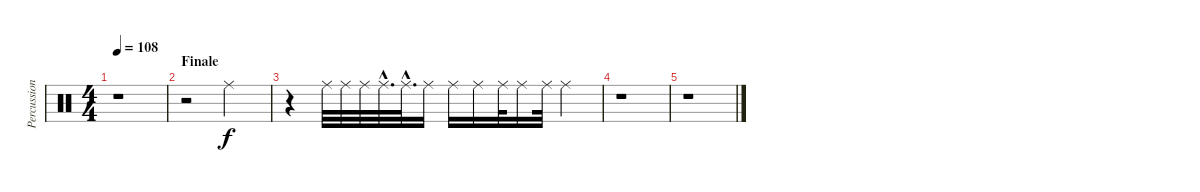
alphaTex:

\track ("Percussion" "Percussion") {instrument percussion}
\staff {score}
\articulation defaults
\ts (4 4)
\tempo 108
\clef neutral
\ks c
r.1{dy f} |
\section ("" "Finale")
r.2 "Ride (middle)".2 |
r.4 "Ride (middle)".32 "Ride (middle)".32 "Ride (middle)".32 "Ride (middle)"{hac}.32{d} "Ride (middle)"{hac}.32{d} "Ride (middle)".16 "Ride (middle)".16 "Ride (middle)".16 "Ride (middle)".32 "Ride (middle)".16 "Ride (middle)".32 "Ride (middle)".4 |
r.1 |
r.1
